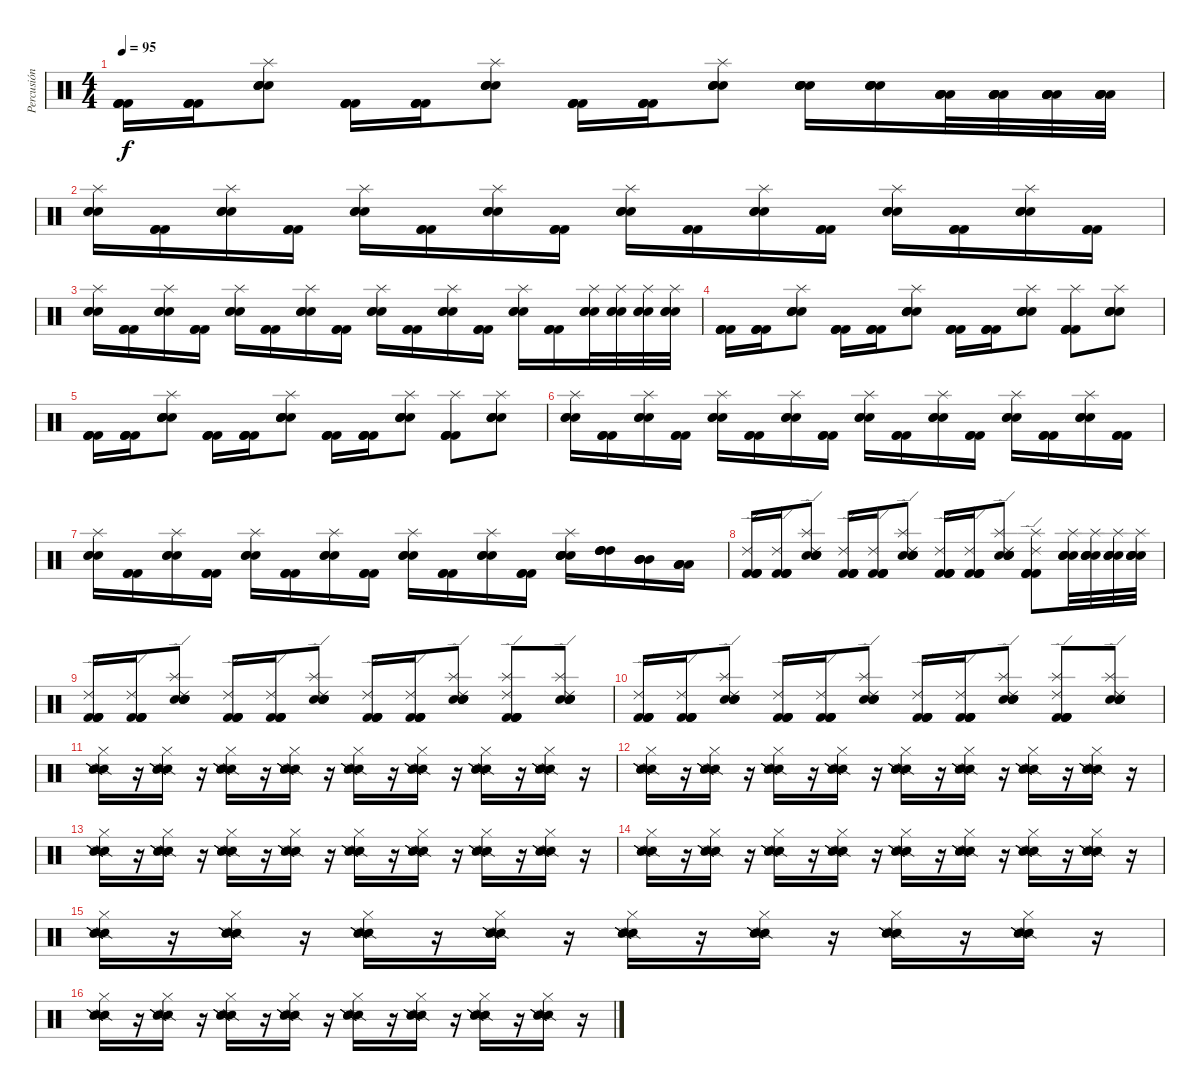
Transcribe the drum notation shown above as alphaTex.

\track ("Percusión" "Percusión") {instrument percussion}
\staff {score}
\articulation defaults
\ts (4 4)
\tempo 95
\clef neutral
\ks c
("Kick (hit) 2" "Kick (hit) 2" "Kick (hit) 2" "Kick (hit) 2").16{dy f} ("Kick (hit) 2" "Kick (hit) 2" "Kick (hit) 2" "Kick (hit) 2").16 ("Electric Snare (hit)" "Electric Snare (hit)" "Splash (hit)" "Electric Snare (hit)" "Electric Snare (hit)").8 ("Kick (hit) 2" "Kick (hit) 2" "Kick (hit) 2" "Kick (hit) 2").16 ("Kick (hit) 2" "Kick (hit) 2" "Kick (hit) 2" "Kick (hit) 2").16 ("Electric Snare (hit)" "Electric Snare (hit)" "Splash (hit)" "Electric Snare (hit)" "Electric Snare (hit)").8 ("Kick (hit) 2" "Kick (hit) 2" "Kick (hit) 2" "Kick (hit) 2").16 ("Kick (hit) 2" "Kick (hit) 2" "Kick (hit) 2" "Kick (hit) 2").16 ("Electric Snare (hit)" "Electric Snare (hit)" "Splash (hit)" "Electric Snare (hit)" "Electric Snare (hit)").8 ("Electric Snare (hit)" "Electric Snare (hit)" "Electric Snare (hit)" "Electric Snare (hit)" "Electric Snare (hit)").16 ("Electric Snare (hit)" "Electric Snare (hit)" "Electric Snare (hit)" "Electric Snare (hit)" "Electric Snare (hit)").16 ("Low Tom (hit)" "Low Tom (hit)" "Low Tom (hit)" "Low Tom (hit)" "Low Tom (hit)").32 ("Low Tom (hit)" "Low Tom (hit)" "Low Tom (hit)" "Low Tom (hit)" "Low Tom (hit)").32 ("Low Tom (hit)" "Low Tom (hit)" "Low Tom (hit)" "Low Tom (hit)" "Low Tom (hit)").32 ("Low Tom (hit)" "Low Tom (hit)" "Low Tom (hit)" "Low Tom (hit)" "Low Tom (hit)").32 |
("Electric Snare (hit)" "Splash (hit)" "Electric Snare (hit)" "Electric Snare (hit)").16 ("Kick (hit) 2" "Kick (hit) 2" "Kick (hit) 2").16 ("Electric Snare (hit)" "Splash (hit)" "Electric Snare (hit)" "Electric Snare (hit)").16 ("Kick (hit) 2" "Kick (hit) 2" "Kick (hit) 2").16 ("Electric Snare (hit)" "Splash (hit)" "Electric Snare (hit)" "Electric Snare (hit)").16 ("Kick (hit) 2" "Kick (hit) 2" "Kick (hit) 2").16 ("Electric Snare (hit)" "Splash (hit)" "Electric Snare (hit)" "Electric Snare (hit)").16 ("Kick (hit) 2" "Kick (hit) 2" "Kick (hit) 2").16 ("Electric Snare (hit)" "Splash (hit)" "Electric Snare (hit)" "Electric Snare (hit)").16 ("Kick (hit) 2" "Kick (hit) 2" "Kick (hit) 2").16 ("Electric Snare (hit)" "Splash (hit)" "Electric Snare (hit)" "Electric Snare (hit)").16 ("Kick (hit) 2" "Kick (hit) 2" "Kick (hit) 2").16 ("Electric Snare (hit)" "Splash (hit)" "Electric Snare (hit)" "Electric Snare (hit)").16 ("Kick (hit) 2" "Kick (hit) 2" "Kick (hit) 2").16 ("Electric Snare (hit)" "Splash (hit)" "Electric Snare (hit)" "Electric Snare (hit)").16 ("Kick (hit) 2" "Kick (hit) 2" "Kick (hit) 2").16 |
("Electric Snare (hit)" "Splash (hit)" "Electric Snare (hit)" "Electric Snare (hit)").16 ("Kick (hit) 2" "Kick (hit) 2" "Kick (hit) 2").16 ("Electric Snare (hit)" "Splash (hit)" "Electric Snare (hit)" "Electric Snare (hit)").16 ("Kick (hit) 2" "Kick (hit) 2" "Kick (hit) 2").16 ("Electric Snare (hit)" "Splash (hit)" "Electric Snare (hit)" "Electric Snare (hit)").16 ("Kick (hit) 2" "Kick (hit) 2" "Kick (hit) 2").16 ("Electric Snare (hit)" "Splash (hit)" "Electric Snare (hit)" "Electric Snare (hit)").16 ("Kick (hit) 2" "Kick (hit) 2" "Kick (hit) 2").16 ("Electric Snare (hit)" "Splash (hit)" "Electric Snare (hit)" "Electric Snare (hit)").16 ("Kick (hit) 2" "Kick (hit) 2" "Kick (hit) 2").16 ("Electric Snare (hit)" "Splash (hit)" "Electric Snare (hit)" "Electric Snare (hit)").16 ("Kick (hit) 2" "Kick (hit) 2" "Kick (hit) 2").16 ("Electric Snare (hit)" "Splash (hit)" "Electric Snare (hit)" "Electric Snare (hit)").16 ("Kick (hit) 2" "Kick (hit) 2" "Kick (hit) 2").16 ("Electric Snare (hit)" "Splash (hit)" "Electric Snare (hit)" "Electric Snare (hit)").32 ("Electric Snare (hit)" "Splash (hit)" "Electric Snare (hit)" "Electric Snare (hit)").32 ("Electric Snare (hit)" "Splash (hit)" "Electric Snare (hit)" "Electric Snare (hit)").32 ("Electric Snare (hit)" "Splash (hit)" "Electric Snare (hit)" "Electric Snare (hit)").32 |
("Kick (hit) 2" "Kick (hit) 2" "Kick (hit) 2" "Kick (hit) 2").16 ("Kick (hit) 2" "Kick (hit) 2" "Kick (hit) 2" "Kick (hit) 2").16 ("Electric Snare (hit)" "Electric Snare (hit)" "Splash (hit)" "Electric Snare (hit)" "Electric Snare (hit)").8 ("Kick (hit) 2" "Kick (hit) 2" "Kick (hit) 2" "Kick (hit) 2").16 ("Kick (hit) 2" "Kick (hit) 2" "Kick (hit) 2" "Kick (hit) 2").16 ("Electric Snare (hit)" "Electric Snare (hit)" "Splash (hit)" "Electric Snare (hit)" "Electric Snare (hit)").8 ("Kick (hit) 2" "Kick (hit) 2" "Kick (hit) 2" "Kick (hit) 2").16 ("Kick (hit) 2" "Kick (hit) 2" "Kick (hit) 2" "Kick (hit) 2").16 ("Electric Snare (hit)" "Electric Snare (hit)" "Splash (hit)" "Electric Snare (hit)" "Electric Snare (hit)").8 ("Kick (hit) 2" "Kick (hit) 2" "Splash (hit)" "Kick (hit) 2" "Kick (hit) 2").8 ("Electric Snare (hit)" "Electric Snare (hit)" "Splash (hit)" "Electric Snare (hit)" "Electric Snare (hit)").8 |
("Kick (hit) 2" "Kick (hit) 2" "Kick (hit) 2" "Kick (hit) 2").16 ("Kick (hit) 2" "Kick (hit) 2" "Kick (hit) 2" "Kick (hit) 2").16 ("Electric Snare (hit)" "Electric Snare (hit)" "Splash (hit)" "Electric Snare (hit)" "Electric Snare (hit)").8 ("Kick (hit) 2" "Kick (hit) 2" "Kick (hit) 2" "Kick (hit) 2").16 ("Kick (hit) 2" "Kick (hit) 2" "Kick (hit) 2" "Kick (hit) 2").16 ("Electric Snare (hit)" "Electric Snare (hit)" "Splash (hit)" "Electric Snare (hit)" "Electric Snare (hit)").8 ("Kick (hit) 2" "Kick (hit) 2" "Kick (hit) 2" "Kick (hit) 2").16 ("Kick (hit) 2" "Kick (hit) 2" "Kick (hit) 2" "Kick (hit) 2").16 ("Electric Snare (hit)" "Electric Snare (hit)" "Splash (hit)" "Electric Snare (hit)" "Electric Snare (hit)").8 ("Kick (hit) 2" "Kick (hit) 2" "Splash (hit)" "Kick (hit) 2" "Kick (hit) 2").8 ("Electric Snare (hit)" "Electric Snare (hit)" "Splash (hit)" "Electric Snare (hit)" "Electric Snare (hit)").8 |
("Electric Snare (hit)" "Splash (hit)" "Electric Snare (hit)" "Electric Snare (hit)").16 ("Kick (hit) 2" "Kick (hit) 2" "Kick (hit) 2").16 ("Electric Snare (hit)" "Splash (hit)" "Electric Snare (hit)" "Electric Snare (hit)").16 ("Kick (hit) 2" "Kick (hit) 2" "Kick (hit) 2").16 ("Electric Snare (hit)" "Splash (hit)" "Electric Snare (hit)" "Electric Snare (hit)").16 ("Kick (hit) 2" "Kick (hit) 2" "Kick (hit) 2").16 ("Electric Snare (hit)" "Splash (hit)" "Electric Snare (hit)" "Electric Snare (hit)").16 ("Kick (hit) 2" "Kick (hit) 2" "Kick (hit) 2").16 ("Electric Snare (hit)" "Splash (hit)" "Electric Snare (hit)" "Electric Snare (hit)").16 ("Kick (hit) 2" "Kick (hit) 2" "Kick (hit) 2").16 ("Electric Snare (hit)" "Splash (hit)" "Electric Snare (hit)" "Electric Snare (hit)").16 ("Kick (hit) 2" "Kick (hit) 2" "Kick (hit) 2").16 ("Electric Snare (hit)" "Splash (hit)" "Electric Snare (hit)" "Electric Snare (hit)").16 ("Kick (hit) 2" "Kick (hit) 2" "Kick (hit) 2").16 ("Electric Snare (hit)" "Splash (hit)" "Electric Snare (hit)" "Electric Snare (hit)").16 ("Kick (hit) 2" "Kick (hit) 2" "Kick (hit) 2").16 |
("Electric Snare (hit)" "Splash (hit)" "Electric Snare (hit)" "Electric Snare (hit)").16 ("Kick (hit) 2" "Kick (hit) 2" "Kick (hit) 2").16 ("Electric Snare (hit)" "Splash (hit)" "Electric Snare (hit)" "Electric Snare (hit)").16 ("Kick (hit) 2" "Kick (hit) 2" "Kick (hit) 2").16 ("Electric Snare (hit)" "Splash (hit)" "Electric Snare (hit)" "Electric Snare (hit)").16 ("Kick (hit) 2" "Kick (hit) 2" "Kick (hit) 2").16 ("Electric Snare (hit)" "Splash (hit)" "Electric Snare (hit)" "Electric Snare (hit)").16 ("Kick (hit) 2" "Kick (hit) 2" "Kick (hit) 2").16 ("Electric Snare (hit)" "Splash (hit)" "Electric Snare (hit)" "Electric Snare (hit)").16 ("Kick (hit) 2" "Kick (hit) 2" "Kick (hit) 2").16 ("Electric Snare (hit)" "Splash (hit)" "Electric Snare (hit)" "Electric Snare (hit)").16 ("Kick (hit) 2" "Kick (hit) 2" "Kick (hit) 2").16 ("Electric Snare (hit)" "Electric Snare (hit)" "Electric Snare (hit)" "Splash (hit)" "Electric Snare (hit)" "Electric Snare (hit)").16 ("High Tom (hit)" "High Tom (hit)" "High Tom (hit)" "High Tom (hit)").16 ("Mid Tom (hit)" "Mid Tom (hit)" "Mid Tom (hit)" "Mid Tom (hit)").16 ("Low Tom (hit)" "Low Tom (hit)" "Low Tom (hit)" "Low Tom (hit)").16 |
("Kick (hit) 2" "Kick (hit) 2" "Ride (edge) 2" "Kick (hit) 2" "Kick (hit) 2").16 ("Kick (hit) 2" "Kick (hit) 2" "Ride (edge) 2" "Kick (hit) 2" "Kick (hit) 2").16 ("Electric Snare (hit)" "Electric Snare (hit)" "Splash (hit)" "Ride (edge) 2" "Electric Snare (hit)" "Electric Snare (hit)").8 ("Kick (hit) 2" "Kick (hit) 2" "Ride (edge) 2" "Kick (hit) 2" "Kick (hit) 2").16 ("Kick (hit) 2" "Kick (hit) 2" "Ride (edge) 2" "Kick (hit) 2" "Kick (hit) 2").16 ("Electric Snare (hit)" "Electric Snare (hit)" "Splash (hit)" "Ride (edge) 2" "Electric Snare (hit)" "Electric Snare (hit)").8 ("Kick (hit) 2" "Kick (hit) 2" "Ride (edge) 2" "Kick (hit) 2" "Kick (hit) 2").16 ("Kick (hit) 2" "Kick (hit) 2" "Ride (edge) 2" "Kick (hit) 2" "Kick (hit) 2").16 ("Electric Snare (hit)" "Electric Snare (hit)" "Splash (hit)" "Ride (edge) 2" "Electric Snare (hit)" "Electric Snare (hit)").8 ("Kick (hit) 2" "Kick (hit) 2" "Splash (hit)" "Ride (edge) 2" "Kick (hit) 2" "Kick (hit) 2").8 ("Electric Snare (hit)" "Electric Snare (hit)" "Splash (hit)" "Electric Snare (hit)" "Electric Snare (hit)").32 ("Electric Snare (hit)" "Electric Snare (hit)" "Splash (hit)" "Electric Snare (hit)" "Electric Snare (hit)").32 ("Electric Snare (hit)" "Electric Snare (hit)" "Splash (hit)" "Electric Snare (hit)" "Electric Snare (hit)").32 ("Electric Snare (hit)" "Electric Snare (hit)" "Splash (hit)" "Electric Snare (hit)" "Electric Snare (hit)").32 |
("Kick (hit) 2" "Kick (hit) 2" "Ride (edge) 2" "Kick (hit) 2" "Kick (hit) 2").16 ("Kick (hit) 2" "Kick (hit) 2" "Ride (edge) 2" "Kick (hit) 2" "Kick (hit) 2").16 ("Electric Snare (hit)" "Electric Snare (hit)" "Splash (hit)" "Ride (edge) 2" "Electric Snare (hit)" "Electric Snare (hit)").8 ("Kick (hit) 2" "Kick (hit) 2" "Ride (edge) 2" "Kick (hit) 2" "Kick (hit) 2").16 ("Kick (hit) 2" "Kick (hit) 2" "Ride (edge) 2" "Kick (hit) 2" "Kick (hit) 2").16 ("Electric Snare (hit)" "Electric Snare (hit)" "Splash (hit)" "Ride (edge) 2" "Electric Snare (hit)" "Electric Snare (hit)").8 ("Kick (hit) 2" "Kick (hit) 2" "Ride (edge) 2" "Kick (hit) 2" "Kick (hit) 2").16 ("Kick (hit) 2" "Kick (hit) 2" "Ride (edge) 2" "Kick (hit) 2" "Kick (hit) 2").16 ("Electric Snare (hit)" "Electric Snare (hit)" "Splash (hit)" "Ride (edge) 2" "Electric Snare (hit)" "Electric Snare (hit)").8 ("Kick (hit) 2" "Kick (hit) 2" "Splash (hit)" "Ride (edge) 2" "Kick (hit) 2" "Kick (hit) 2").8 ("Electric Snare (hit)" "Electric Snare (hit)" "Splash (hit)" "Ride (edge) 2" "Electric Snare (hit)" "Electric Snare (hit)").8 |
("Kick (hit) 2" "Kick (hit) 2" "Ride (edge) 2" "Kick (hit) 2" "Kick (hit) 2").16 ("Kick (hit) 2" "Kick (hit) 2" "Ride (edge) 2" "Kick (hit) 2" "Kick (hit) 2").16 ("Electric Snare (hit)" "Electric Snare (hit)" "Splash (hit)" "Ride (edge) 2" "Electric Snare (hit)" "Electric Snare (hit)").8 ("Kick (hit) 2" "Kick (hit) 2" "Ride (edge) 2" "Kick (hit) 2" "Kick (hit) 2").16 ("Kick (hit) 2" "Kick (hit) 2" "Ride (edge) 2" "Kick (hit) 2" "Kick (hit) 2").16 ("Electric Snare (hit)" "Electric Snare (hit)" "Splash (hit)" "Ride (edge) 2" "Electric Snare (hit)" "Electric Snare (hit)").8 ("Kick (hit) 2" "Kick (hit) 2" "Ride (edge) 2" "Kick (hit) 2" "Kick (hit) 2").16 ("Kick (hit) 2" "Kick (hit) 2" "Ride (edge) 2" "Kick (hit) 2" "Kick (hit) 2").16 ("Electric Snare (hit)" "Electric Snare (hit)" "Splash (hit)" "Ride (edge) 2" "Electric Snare (hit)" "Electric Snare (hit)").8 ("Kick (hit) 2" "Kick (hit) 2" "Splash (hit)" "Ride (edge) 2" "Kick (hit) 2" "Kick (hit) 2").8 ("Electric Snare (hit)" "Electric Snare (hit)" "Splash (hit)" "Ride (edge) 2" "Electric Snare (hit)" "Electric Snare (hit)").8 |
("Snare (side stick) 2" "Snare (side stick) 2" "Hi-Hat (closed)" "Snare (side stick) 2" "Snare (side stick) 2").16 r.16 ("Snare (side stick) 2" "Snare (side stick) 2" "Hi-Hat (closed)" "Snare (side stick) 2" "Snare (side stick) 2").16 r.16 ("Snare (side stick) 2" "Snare (side stick) 2" "Hi-Hat (closed)" "Snare (side stick) 2" "Snare (side stick) 2").16 r.16 ("Snare (side stick) 2" "Snare (side stick) 2" "Hi-Hat (closed)" "Snare (side stick) 2" "Snare (side stick) 2").16 r.16 ("Snare (side stick) 2" "Snare (side stick) 2" "Hi-Hat (closed)" "Snare (side stick) 2" "Snare (side stick) 2").16 r.16 ("Snare (side stick) 2" "Snare (side stick) 2" "Hi-Hat (closed)" "Snare (side stick) 2" "Snare (side stick) 2").16 r.16 ("Snare (side stick) 2" "Snare (side stick) 2" "Hi-Hat (closed)" "Snare (side stick) 2" "Snare (side stick) 2").16 r.16 ("Snare (side stick) 2" "Snare (side stick) 2" "Hi-Hat (closed)" "Snare (side stick) 2" "Snare (side stick) 2").16 r.16 |
("Snare (side stick) 2" "Snare (side stick) 2" "Hi-Hat (closed)" "Snare (side stick) 2" "Snare (side stick) 2").16 r.16 ("Snare (side stick) 2" "Snare (side stick) 2" "Hi-Hat (closed)" "Snare (side stick) 2" "Snare (side stick) 2").16 r.16 ("Snare (side stick) 2" "Snare (side stick) 2" "Hi-Hat (closed)" "Snare (side stick) 2" "Snare (side stick) 2").16 r.16 ("Snare (side stick) 2" "Snare (side stick) 2" "Hi-Hat (closed)" "Snare (side stick) 2" "Snare (side stick) 2").16 r.16 ("Snare (side stick) 2" "Snare (side stick) 2" "Hi-Hat (closed)" "Snare (side stick) 2" "Snare (side stick) 2").16 r.16 ("Snare (side stick) 2" "Snare (side stick) 2" "Hi-Hat (closed)" "Snare (side stick) 2" "Snare (side stick) 2").16 r.16 ("Snare (side stick) 2" "Snare (side stick) 2" "Hi-Hat (closed)" "Snare (side stick) 2" "Snare (side stick) 2").16 r.16 ("Snare (side stick) 2" "Snare (side stick) 2" "Hi-Hat (closed)" "Snare (side stick) 2" "Snare (side stick) 2").16 r.16 |
("Snare (side stick) 2" "Snare (side stick) 2" "Hi-Hat (closed)" "Snare (side stick) 2" "Snare (side stick) 2").16 r.16 ("Snare (side stick) 2" "Snare (side stick) 2" "Hi-Hat (closed)" "Snare (side stick) 2" "Snare (side stick) 2").16 r.16 ("Snare (side stick) 2" "Snare (side stick) 2" "Hi-Hat (closed)" "Snare (side stick) 2" "Snare (side stick) 2").16 r.16 ("Snare (side stick) 2" "Snare (side stick) 2" "Hi-Hat (closed)" "Snare (side stick) 2" "Snare (side stick) 2").16 r.16 ("Snare (side stick) 2" "Snare (side stick) 2" "Hi-Hat (closed)" "Snare (side stick) 2" "Snare (side stick) 2").16 r.16 ("Snare (side stick) 2" "Snare (side stick) 2" "Hi-Hat (closed)" "Snare (side stick) 2" "Snare (side stick) 2").16 r.16 ("Snare (side stick) 2" "Snare (side stick) 2" "Hi-Hat (closed)" "Snare (side stick) 2" "Snare (side stick) 2").16 r.16 ("Snare (side stick) 2" "Snare (side stick) 2" "Hi-Hat (closed)" "Snare (side stick) 2" "Snare (side stick) 2").16 r.16 |
("Snare (side stick) 2" "Snare (side stick) 2" "Hi-Hat (closed)" "Snare (side stick) 2" "Snare (side stick) 2").16 r.16 ("Snare (side stick) 2" "Snare (side stick) 2" "Hi-Hat (closed)" "Snare (side stick) 2" "Snare (side stick) 2").16 r.16 ("Snare (side stick) 2" "Snare (side stick) 2" "Hi-Hat (closed)" "Snare (side stick) 2" "Snare (side stick) 2").16 r.16 ("Snare (side stick) 2" "Snare (side stick) 2" "Hi-Hat (closed)" "Snare (side stick) 2" "Snare (side stick) 2").16 r.16 ("Snare (side stick) 2" "Snare (side stick) 2" "Hi-Hat (closed)" "Snare (side stick) 2" "Snare (side stick) 2").16 r.16 ("Snare (side stick) 2" "Snare (side stick) 2" "Hi-Hat (closed)" "Snare (side stick) 2" "Snare (side stick) 2").16 r.16 ("Snare (side stick) 2" "Snare (side stick) 2" "Hi-Hat (closed)" "Snare (side stick) 2" "Snare (side stick) 2").16 r.16 ("Snare (side stick) 2" "Snare (side stick) 2" "Hi-Hat (closed)" "Snare (side stick) 2" "Snare (side stick) 2").16 r.16 |
("Snare (side stick) 2" "Snare (side stick) 2" "Hi-Hat (closed)" "Snare (side stick) 2" "Snare (side stick) 2").16 r.16 ("Snare (side stick) 2" "Snare (side stick) 2" "Hi-Hat (closed)" "Snare (side stick) 2" "Snare (side stick) 2").16 r.16 ("Snare (side stick) 2" "Snare (side stick) 2" "Hi-Hat (closed)" "Snare (side stick) 2" "Snare (side stick) 2").16 r.16 ("Snare (side stick) 2" "Snare (side stick) 2" "Hi-Hat (closed)" "Snare (side stick) 2" "Snare (side stick) 2").16 r.16 ("Snare (side stick) 2" "Snare (side stick) 2" "Hi-Hat (closed)" "Snare (side stick) 2" "Snare (side stick) 2").16 r.16 ("Snare (side stick) 2" "Snare (side stick) 2" "Hi-Hat (closed)" "Snare (side stick) 2" "Snare (side stick) 2").16 r.16 ("Snare (side stick) 2" "Snare (side stick) 2" "Hi-Hat (closed)" "Snare (side stick) 2" "Snare (side stick) 2").16 r.16 ("Snare (side stick) 2" "Snare (side stick) 2" "Hi-Hat (closed)" "Snare (side stick) 2" "Snare (side stick) 2").16 r.16 |
("Snare (side stick) 2" "Snare (side stick) 2" "Hi-Hat (closed)" "Snare (side stick) 2" "Snare (side stick) 2").16 r.16 ("Snare (side stick) 2" "Snare (side stick) 2" "Hi-Hat (closed)" "Snare (side stick) 2" "Snare (side stick) 2").16 r.16 ("Snare (side stick) 2" "Snare (side stick) 2" "Hi-Hat (closed)" "Snare (side stick) 2" "Snare (side stick) 2").16 r.16 ("Snare (side stick) 2" "Snare (side stick) 2" "Hi-Hat (closed)" "Snare (side stick) 2" "Snare (side stick) 2").16 r.16 ("Snare (side stick) 2" "Snare (side stick) 2" "Hi-Hat (closed)" "Snare (side stick) 2" "Snare (side stick) 2").16 r.16 ("Snare (side stick) 2" "Snare (side stick) 2" "Hi-Hat (closed)" "Snare (side stick) 2" "Snare (side stick) 2").16 r.16 ("Snare (side stick) 2" "Snare (side stick) 2" "Hi-Hat (closed)" "Snare (side stick) 2" "Snare (side stick) 2").16 r.16 ("Snare (side stick) 2" "Snare (side stick) 2" "Hi-Hat (closed)" "Snare (side stick) 2" "Snare (side stick) 2").16 r.16
